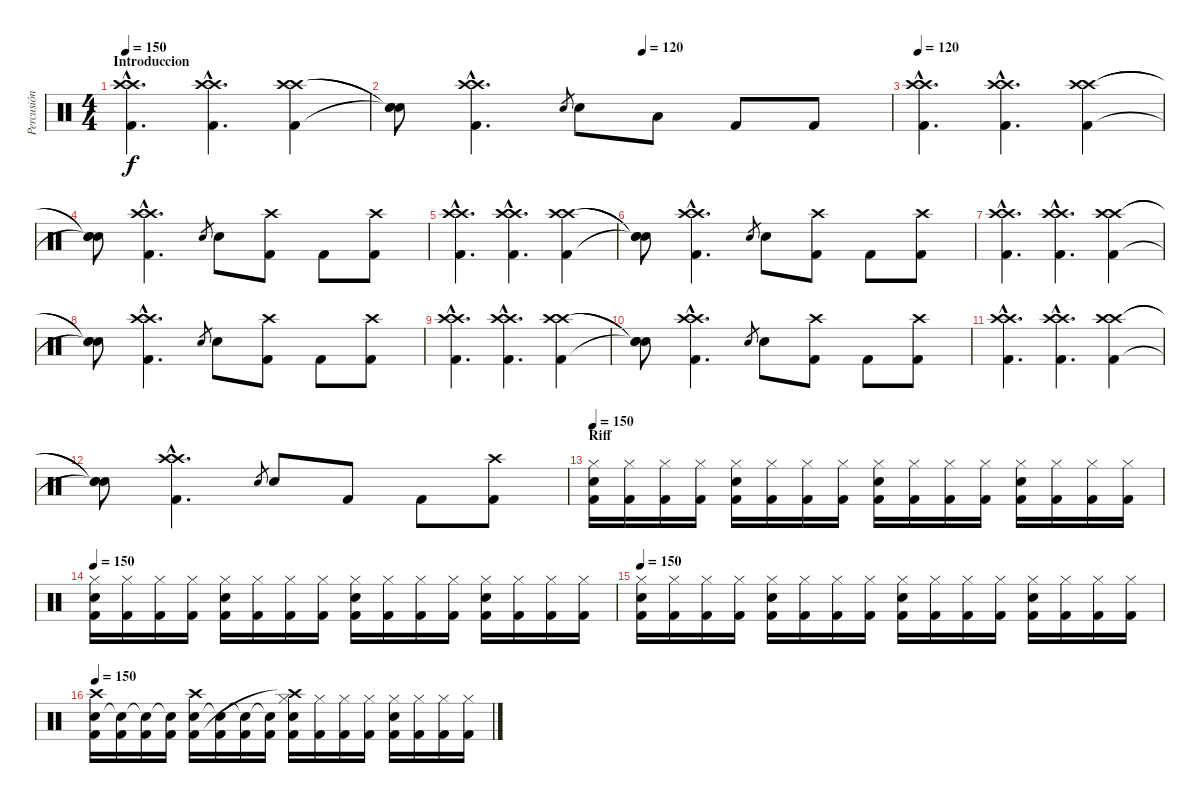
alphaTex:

\track ("Percusión" "Percusión") {instrument percussion}
\staff {score}
\articulation defaults
\ts (4 4)
\section ("" "Introduccion")
\tempo 150
\tempo 120
\tempo 150
\clef neutral
\ks c
("Crash high (hit)"{hac} "Crash high (hit)"{hac} "Kick (hit) 2"{hac}).4{d dy f} ("Crash high (hit)"{hac} "Crash high (hit)"{hac} "Kick (hit) 2"{hac}).4{d} ("Crash high (hit)" "Crash high (hit)" "Kick (hit) 2").4 |
\tempo (120 0.5)
("Snare (hit)"{t} "Snare (hit)"{t} "Snare (hit)"{t}).8 ("Crash high (hit)"{hac} "Crash high (hit)"{hac} "Kick (hit) 2"{hac}).4{d} "Electric Snare (hit)".8{gr} "Electric Snare (hit)".8 "Low Tom (hit)".8 "Kick (hit) 2".8 "Kick (hit) 2".8 |
\tempo 120
("Crash high (hit)"{hac} "Crash high (hit)"{hac} "Kick (hit) 2"{hac}).4{d} ("Crash high (hit)"{hac} "Crash high (hit)"{hac} "Kick (hit) 2"{hac}).4{d} ("Crash high (hit)" "Crash high (hit)" "Kick (hit) 2").4 |
("Snare (hit)"{t} "Snare (hit)"{t} "Snare (hit)"{t}).8 ("Crash high (hit)"{hac} "Crash high (hit)"{hac} "Kick (hit) 2"{hac}).4{d} "Electric Snare (hit)".8{gr} "Electric Snare (hit)".8 ("Crash high (hit)" "Kick (hit) 2").8 "Kick (hit) 2".8 ("Crash high (hit)" "Kick (hit) 2").8 |
("Crash high (hit)"{hac} "Crash high (hit)"{hac} "Kick (hit) 2"{hac}).4{d} ("Crash high (hit)"{hac} "Crash high (hit)"{hac} "Kick (hit) 2"{hac}).4{d} ("Crash high (hit)" "Crash high (hit)" "Kick (hit) 2").4 |
("Snare (hit)"{t} "Snare (hit)"{t} "Snare (hit)"{t}).8 ("Crash high (hit)"{hac} "Crash high (hit)"{hac} "Kick (hit) 2"{hac}).4{d} "Electric Snare (hit)".8{gr} "Electric Snare (hit)".8 ("Crash high (hit)" "Kick (hit) 2").8 "Kick (hit) 2".8 ("Crash high (hit)" "Kick (hit) 2").8 |
("Crash high (hit)"{hac} "Crash high (hit)"{hac} "Kick (hit) 2"{hac}).4{d} ("Crash high (hit)"{hac} "Crash high (hit)"{hac} "Kick (hit) 2"{hac}).4{d} ("Crash high (hit)" "Crash high (hit)" "Kick (hit) 2").4 |
("Snare (hit)"{t} "Snare (hit)"{t} "Snare (hit)"{t}).8 ("Crash high (hit)"{hac} "Crash high (hit)"{hac} "Kick (hit) 2"{hac}).4{d} "Electric Snare (hit)".8{gr} "Electric Snare (hit)".8 ("Crash high (hit)" "Kick (hit) 2").8 "Kick (hit) 2".8 ("Crash high (hit)" "Kick (hit) 2").8 |
("Crash high (hit)"{hac} "Crash high (hit)"{hac} "Kick (hit) 2"{hac}).4{d} ("Crash high (hit)"{hac} "Crash high (hit)"{hac} "Kick (hit) 2"{hac}).4{d} ("Crash high (hit)" "Crash high (hit)" "Kick (hit) 2").4 |
("Snare (hit)"{t} "Snare (hit)"{t} "Snare (hit)"{t}).8 ("Crash high (hit)"{hac} "Crash high (hit)"{hac} "Kick (hit) 2"{hac}).4{d} "Electric Snare (hit)".8{gr} "Electric Snare (hit)".8 ("Crash high (hit)" "Kick (hit) 2").8 "Kick (hit) 2".8 ("Crash high (hit)" "Kick (hit) 2").8 |
("Crash high (hit)"{hac} "Crash high (hit)"{hac} "Kick (hit) 2"{hac}).4{d} ("Crash high (hit)"{hac} "Crash high (hit)"{hac} "Kick (hit) 2"{hac}).4{d} ("Crash high (hit)" "Crash high (hit)" "Kick (hit) 2").4 |
("Snare (hit)"{t} "Snare (hit)"{t} "Snare (hit)"{t}).8 ("Crash high (hit)"{hac} "Crash high (hit)"{hac} "Kick (hit) 2"{hac}).4{d} "Electric Snare (hit)".8{gr} "Electric Snare (hit)".8 "Kick (hit) 2".8 "Kick (hit) 2".8 ("Crash high (hit)" "Kick (hit) 2").8 |
\section ("" "Riff")
\tempo 150
("Hi-Hat (closed)" "Electric Snare (hit)" "Kick (hit) 2").16 ("Hi-Hat (closed)" "Kick (hit) 2").16 ("Hi-Hat (closed)" "Kick (hit) 2").16 ("Hi-Hat (closed)" "Kick (hit) 2").16 ("Hi-Hat (closed)" "Electric Snare (hit)" "Kick (hit) 2").16 ("Hi-Hat (closed)" "Kick (hit) 2").16 ("Hi-Hat (closed)" "Kick (hit) 2").16 ("Hi-Hat (closed)" "Kick (hit) 2").16 ("Hi-Hat (closed)" "Electric Snare (hit)" "Kick (hit) 2").16 ("Hi-Hat (closed)" "Kick (hit) 2").16 ("Hi-Hat (closed)" "Kick (hit) 2").16 ("Hi-Hat (closed)" "Kick (hit) 2").16 ("Hi-Hat (closed)" "Electric Snare (hit)" "Kick (hit) 2").16 ("Hi-Hat (closed)" "Kick (hit) 2").16 ("Hi-Hat (closed)" "Kick (hit) 2").16 ("Hi-Hat (closed)" "Kick (hit) 2").16 |
\tempo 150
("Hi-Hat (closed)" "Electric Snare (hit)" "Kick (hit) 2").16 ("Hi-Hat (closed)" "Kick (hit) 2").16 ("Hi-Hat (closed)" "Kick (hit) 2").16 ("Hi-Hat (closed)" "Kick (hit) 2").16 ("Hi-Hat (closed)" "Electric Snare (hit)" "Kick (hit) 2").16 ("Hi-Hat (closed)" "Kick (hit) 2").16 ("Hi-Hat (closed)" "Kick (hit) 2").16 ("Hi-Hat (closed)" "Kick (hit) 2").16 ("Hi-Hat (closed)" "Electric Snare (hit)" "Kick (hit) 2").16 ("Hi-Hat (closed)" "Kick (hit) 2").16 ("Hi-Hat (closed)" "Kick (hit) 2").16 ("Hi-Hat (closed)" "Kick (hit) 2").16 ("Hi-Hat (closed)" "Electric Snare (hit)" "Kick (hit) 2").16 ("Hi-Hat (closed)" "Kick (hit) 2").16 ("Hi-Hat (closed)" "Kick (hit) 2").16 ("Hi-Hat (closed)" "Kick (hit) 2").16 |
\tempo 150
("Hi-Hat (closed)" "Electric Snare (hit)" "Kick (hit) 2").16 ("Hi-Hat (closed)" "Kick (hit) 2").16 ("Hi-Hat (closed)" "Kick (hit) 2").16 ("Hi-Hat (closed)" "Kick (hit) 2").16 ("Hi-Hat (closed)" "Electric Snare (hit)" "Kick (hit) 2").16 ("Hi-Hat (closed)" "Kick (hit) 2").16 ("Hi-Hat (closed)" "Kick (hit) 2").16 ("Hi-Hat (closed)" "Kick (hit) 2").16 ("Hi-Hat (closed)" "Electric Snare (hit)" "Kick (hit) 2").16 ("Hi-Hat (closed)" "Kick (hit) 2").16 ("Hi-Hat (closed)" "Kick (hit) 2").16 ("Hi-Hat (closed)" "Kick (hit) 2").16 ("Hi-Hat (closed)" "Electric Snare (hit)" "Kick (hit) 2").16 ("Hi-Hat (closed)" "Kick (hit) 2").16 ("Hi-Hat (closed)" "Kick (hit) 2").16 ("Hi-Hat (closed)" "Kick (hit) 2").16 |
\tempo 150
("Electric Snare (hit)" "Crash high (hit)" "Kick (hit) 2").16 ("Snare (hit)"{t} "Kick (hit) 2").16 ("Snare (hit)"{t} "Kick (hit) 2").16 ("Snare (hit)"{t} "Kick (hit) 2").16 ("Electric Snare (hit)" "Crash high (hit)" "Kick (hit) 2").16 ("Snare (hit)"{t} "Kick (hit) 2").16 ("Snare (hit)"{t} "Kick (hit) 2").16 ("Snare (hit)"{t} "Kick (hit) 2").16 ("Hi-Hat (closed)" "Electric Snare (hit)" "Crash high (hit)"{t} "Kick (hit) 2").16 ("Hi-Hat (closed)" "Kick (hit) 2").16 ("Hi-Hat (closed)" "Kick (hit) 2").16 ("Hi-Hat (closed)" "Kick (hit) 2").16 ("Hi-Hat (closed)" "Electric Snare (hit)" "Kick (hit) 2").16 ("Hi-Hat (closed)" "Kick (hit) 2").16 ("Hi-Hat (closed)" "Kick (hit) 2").16 ("Hi-Hat (closed)" "Kick (hit) 2").16
